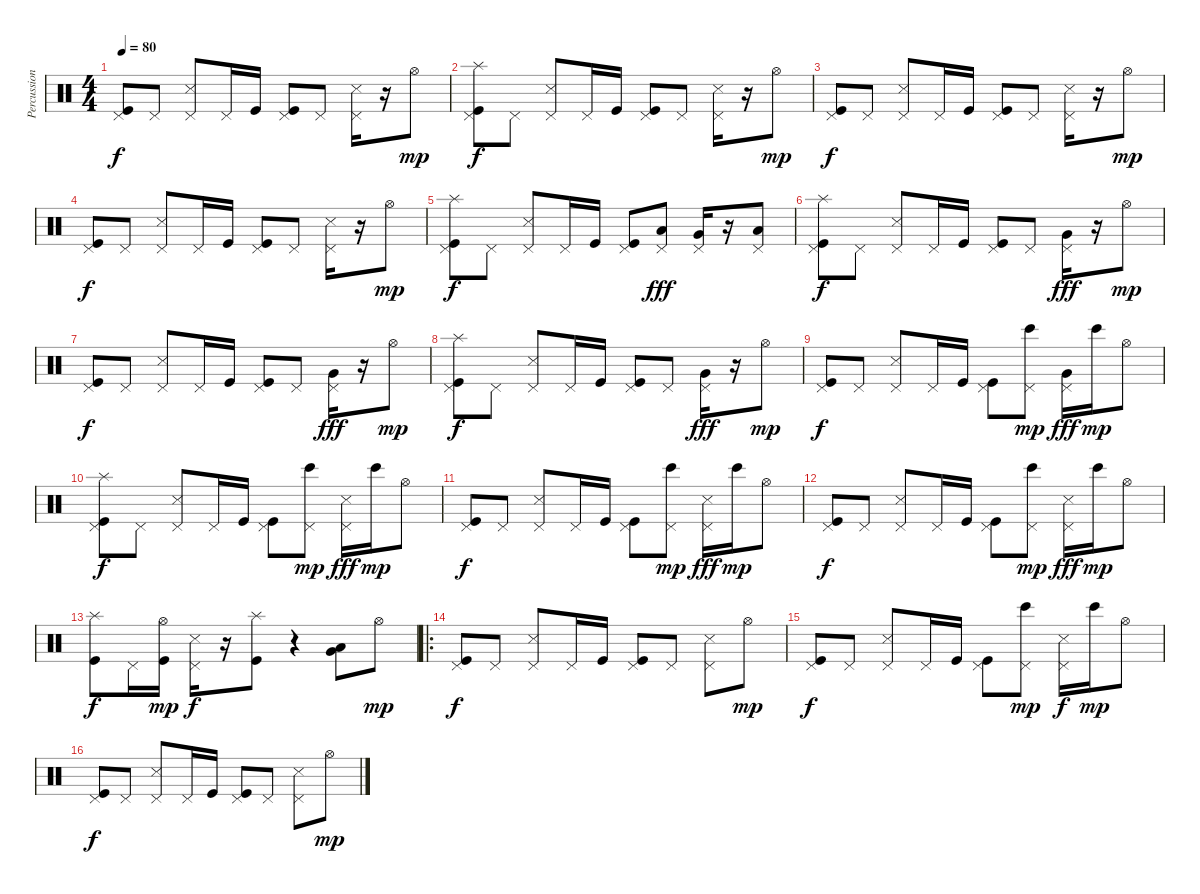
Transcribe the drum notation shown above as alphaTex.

\track ("Percussion" "Percussion") {instrument percussion}
\staff {score}
\articulation defaults
\ts (4 4)
\tempo 80
\clef neutral
\ks c
("Pedal Hi-Hat (hit)" "Kick (hit)").8{dy f} "Pedal Hi-Hat (hit)".8 ("Pedal Hi-Hat (hit)" "Metronome (hit)").8 "Pedal Hi-Hat (hit)".16 "Kick (hit)".16 ("Pedal Hi-Hat (hit)" "Kick (hit)").8 "Pedal Hi-Hat (hit)".8 ("Pedal Hi-Hat (hit)" "Metronome (hit)").16 r.16 "Hi-Hat (open)".8{dy mp} |
("Pedal Hi-Hat (hit)" "Kick (hit)" "Splash (hit)").8{dy f} "Pedal Hi-Hat (hit)".8 ("Pedal Hi-Hat (hit)" "Metronome (hit)").8 "Pedal Hi-Hat (hit)".16 "Kick (hit)".16 ("Pedal Hi-Hat (hit)" "Kick (hit)").8 "Pedal Hi-Hat (hit)".8 ("Pedal Hi-Hat (hit)" "Metronome (hit)").16 r.16 "Hi-Hat (open)".8{dy mp} |
("Pedal Hi-Hat (hit)" "Kick (hit)").8{dy f} "Pedal Hi-Hat (hit)".8 ("Pedal Hi-Hat (hit)" "Metronome (hit)").8 "Pedal Hi-Hat (hit)".16 "Kick (hit)".16 ("Pedal Hi-Hat (hit)" "Kick (hit)").8 "Pedal Hi-Hat (hit)".8 ("Pedal Hi-Hat (hit)" "Metronome (hit)").16 r.16 "Hi-Hat (open)".8{dy mp} |
("Pedal Hi-Hat (hit)" "Kick (hit)").8{dy f} "Pedal Hi-Hat (hit)".8 ("Pedal Hi-Hat (hit)" "Metronome (hit)").8 "Pedal Hi-Hat (hit)".16 "Kick (hit)".16 ("Pedal Hi-Hat (hit)" "Kick (hit)").8 "Pedal Hi-Hat (hit)".8 ("Pedal Hi-Hat (hit)" "Metronome (hit)").16 r.16 "Hi-Hat (open)".8{dy mp} |
("Pedal Hi-Hat (hit)" "Kick (hit)" "Splash (hit)").8{dy f} "Pedal Hi-Hat (hit)".8 ("Pedal Hi-Hat (hit)" "Metronome (hit)").8 "Pedal Hi-Hat (hit)".16 "Kick (hit)".16 ("Pedal Hi-Hat (hit)" "Kick (hit)").8 ("Pedal Hi-Hat (hit)" "Low Tom (hit)").8{dy fff} ("Pedal Hi-Hat (hit)" "Very Low Tom (hit)").16 r.16 ("Pedal Hi-Hat (hit)" "Low Floor Tom (hit)").8 |
("Pedal Hi-Hat (hit)" "Kick (hit)" "Splash (hit)").8{dy f} "Pedal Hi-Hat (hit)".8 ("Pedal Hi-Hat (hit)" "Metronome (hit)").8 "Pedal Hi-Hat (hit)".16 "Kick (hit)".16 ("Pedal Hi-Hat (hit)" "Kick (hit)").8 "Pedal Hi-Hat (hit)".8 ("Pedal Hi-Hat (hit)" "Very Low Tom (hit)").16{dy fff} r.16 "Hi-Hat (open)".8{dy mp} |
("Pedal Hi-Hat (hit)" "Kick (hit)").8{dy f} "Pedal Hi-Hat (hit)".8 ("Pedal Hi-Hat (hit)" "Metronome (hit)").8 "Pedal Hi-Hat (hit)".16 "Kick (hit)".16 ("Pedal Hi-Hat (hit)" "Kick (hit)").8 "Pedal Hi-Hat (hit)".8 ("Pedal Hi-Hat (hit)" "Very Low Tom (hit)").16{dy fff} r.16 "Hi-Hat (open)".8{dy mp} |
("Pedal Hi-Hat (hit)" "Kick (hit)" "Splash (hit)").8{dy f} "Pedal Hi-Hat (hit)".8 ("Pedal Hi-Hat (hit)" "Metronome (hit)").8 "Pedal Hi-Hat (hit)".16 "Kick (hit)".16 ("Pedal Hi-Hat (hit)" "Kick (hit)").8 "Pedal Hi-Hat (hit)".8 ("Pedal Hi-Hat (hit)" "Very Low Tom (hit)").16{dy fff} r.16 "Hi-Hat (open)".8{dy mp} |
("Pedal Hi-Hat (hit)" "Kick (hit)").8{dy f} "Pedal Hi-Hat (hit)".8 ("Pedal Hi-Hat (hit)" "Metronome (hit)").8 "Pedal Hi-Hat (hit)".16 "Kick (hit)".16 ("Pedal Hi-Hat (hit)" "Kick (hit)").8 ("Pedal Hi-Hat (hit)" "Bongo High (hit)").8{dy mp} ("Pedal Hi-Hat (hit)" "Very Low Tom (hit)").16{dy fff} "Bongo High (hit)".16{dy mp} "Hi-Hat (open)".8 |
("Pedal Hi-Hat (hit)" "Kick (hit)" "Splash (hit)").8{dy f} "Pedal Hi-Hat (hit)".8 ("Pedal Hi-Hat (hit)" "Metronome (hit)").8 "Pedal Hi-Hat (hit)".16 "Kick (hit)".16 ("Pedal Hi-Hat (hit)" "Kick (hit)").8 ("Pedal Hi-Hat (hit)" "Bongo High (hit)").8{dy mp} ("Pedal Hi-Hat (hit)" "Metronome (hit)").16{dy fff} "Bongo High (hit)".16{dy mp} "Hi-Hat (open)".8 |
("Pedal Hi-Hat (hit)" "Kick (hit)").8{dy f} "Pedal Hi-Hat (hit)".8 ("Pedal Hi-Hat (hit)" "Metronome (hit)").8 "Pedal Hi-Hat (hit)".16 "Kick (hit)".16 ("Pedal Hi-Hat (hit)" "Kick (hit)").8 ("Pedal Hi-Hat (hit)" "Bongo High (hit)").8{dy mp} ("Pedal Hi-Hat (hit)" "Metronome (hit)").16{dy fff} "Bongo High (hit)".16{dy mp} "Hi-Hat (open)".8 |
("Pedal Hi-Hat (hit)" "Kick (hit)").8{dy f} "Pedal Hi-Hat (hit)".8 ("Pedal Hi-Hat (hit)" "Metronome (hit)").8 "Pedal Hi-Hat (hit)".16 "Kick (hit)".16 ("Pedal Hi-Hat (hit)" "Kick (hit)").8 ("Pedal Hi-Hat (hit)" "Bongo High (hit)").8{dy mp} ("Pedal Hi-Hat (hit)" "Metronome (hit)").16{dy fff} "Bongo High (hit)".16{dy mp} "Hi-Hat (open)".8 |
("Splash (hit)" "Kick (hit)").8{dy f} "Pedal Hi-Hat (hit)".16 ("Hi-Hat (open)" "Kick (hit)").16{dy mp} ("Pedal Hi-Hat (hit)" "Metronome (hit)").16{dy f} r.16 ("Splash (hit)" "Kick (hit)").8 r.4 ("Very Low Tom (hit)" "Low Floor Tom (hit)").8 "Hi-Hat (open)".8{dy mp} |
\ro
("Pedal Hi-Hat (hit)" "Kick (hit)").8{dy f} "Pedal Hi-Hat (hit)".8 ("Pedal Hi-Hat (hit)" "Metronome (hit)").8 "Pedal Hi-Hat (hit)".16 "Kick (hit)".16 ("Pedal Hi-Hat (hit)" "Kick (hit)").8 "Pedal Hi-Hat (hit)".8 ("Pedal Hi-Hat (hit)" "Metronome (hit)").8 "Hi-Hat (open)".8{dy mp} |
("Pedal Hi-Hat (hit)" "Kick (hit)").8{dy f} "Pedal Hi-Hat (hit)".8 ("Pedal Hi-Hat (hit)" "Metronome (hit)").8 "Pedal Hi-Hat (hit)".16 "Kick (hit)".16 ("Pedal Hi-Hat (hit)" "Kick (hit)").8 ("Pedal Hi-Hat (hit)" "Bongo High (hit)").8{dy mp} ("Pedal Hi-Hat (hit)" "Metronome (hit)").16{dy f} "Bongo High (hit)".16{dy mp} "Hi-Hat (open)".8 |
("Pedal Hi-Hat (hit)" "Kick (hit)").8{dy f} "Pedal Hi-Hat (hit)".8 ("Pedal Hi-Hat (hit)" "Metronome (hit)").8 "Pedal Hi-Hat (hit)".16 "Kick (hit)".16 ("Pedal Hi-Hat (hit)" "Kick (hit)").8 "Pedal Hi-Hat (hit)".8 ("Pedal Hi-Hat (hit)" "Metronome (hit)").8 "Hi-Hat (open)".8{dy mp}
